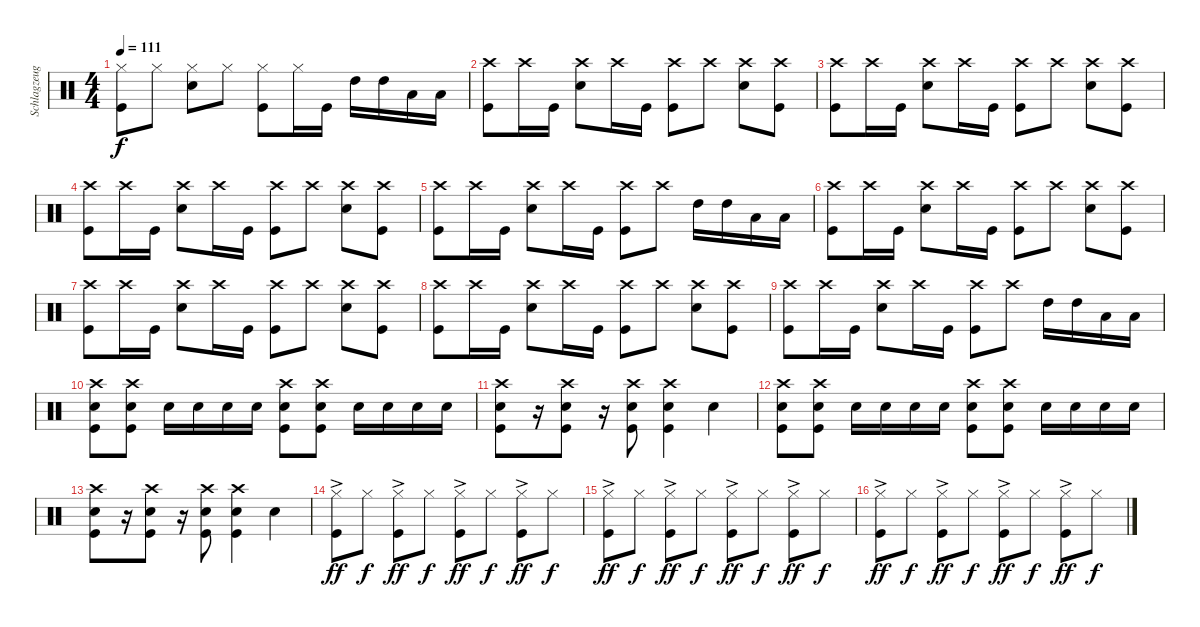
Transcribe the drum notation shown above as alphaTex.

\track ("Schlagzeug" "Schlagzeug") {solo instrument percussion}
\staff {score}
\articulation defaults
\ts (4 4)
\tempo 111
\clef neutral
\ks c
("Kick (hit)" "Hi-Hat (closed)").8{dy f} "Hi-Hat (closed)".8 ("Hi-Hat (closed)" "Snare (hit) 2").8 "Hi-Hat (closed)".8 ("Hi-Hat (closed)" "Kick (hit)").8 "Hi-Hat (closed)".16 "Kick (hit)".16 "High Tom (hit)".16 "High Tom (hit)".16 "Low Tom (hit)".16 "Low Floor Tom (hit)".16 |
("Crash high (hit)" "Kick (hit)").8 "Crash high (hit)".16 "Kick (hit)".16 ("Crash high (hit)" "Snare (hit) 2").8 "Crash high (hit)".16 "Kick (hit)".16 ("Crash high (hit)" "Kick (hit)").8 "Crash high (hit)".8 ("Snare (hit) 2" "Crash high (hit)").8 ("Crash high (hit)" "Kick (hit)").8 |
("Crash high (hit)" "Kick (hit)").8 "Crash high (hit)".16 "Kick (hit)".16 ("Crash high (hit)" "Snare (hit) 2").8 "Crash high (hit)".16 "Kick (hit)".16 ("Crash high (hit)" "Kick (hit)").8 "Crash high (hit)".8 ("Snare (hit) 2" "Crash high (hit)").8 ("Crash high (hit)" "Kick (hit)").8 |
("Crash high (hit)" "Kick (hit)").8 "Crash high (hit)".16 "Kick (hit)".16 ("Crash high (hit)" "Snare (hit) 2").8 "Crash high (hit)".16 "Kick (hit)".16 ("Crash high (hit)" "Kick (hit)").8 "Crash high (hit)".8 ("Snare (hit) 2" "Crash high (hit)").8 ("Crash high (hit)" "Kick (hit)").8 |
("Crash high (hit)" "Kick (hit)").8 "Crash high (hit)".16 "Kick (hit)".16 ("Crash high (hit)" "Snare (hit) 2").8 "Crash high (hit)".16 "Kick (hit)".16 ("Crash high (hit)" "Kick (hit)").8 "Crash high (hit)".8 "High Tom (hit)".16 "High Tom (hit)".16 "Low Tom (hit)".16 "Low Tom (hit)".16 |
("Crash high (hit)" "Kick (hit)").8 "Crash high (hit)".16 "Kick (hit)".16 ("Crash high (hit)" "Snare (hit) 2").8 "Crash high (hit)".16 "Kick (hit)".16 ("Crash high (hit)" "Kick (hit)").8 "Crash high (hit)".8 ("Snare (hit) 2" "Crash high (hit)").8 ("Crash high (hit)" "Kick (hit)").8 |
("Crash high (hit)" "Kick (hit)").8 "Crash high (hit)".16 "Kick (hit)".16 ("Crash high (hit)" "Snare (hit) 2").8 "Crash high (hit)".16 "Kick (hit)".16 ("Crash high (hit)" "Kick (hit)").8 "Crash high (hit)".8 ("Snare (hit) 2" "Crash high (hit)").8 ("Crash high (hit)" "Kick (hit)").8 |
("Crash high (hit)" "Kick (hit)").8 "Crash high (hit)".16 "Kick (hit)".16 ("Crash high (hit)" "Snare (hit) 2").8 "Crash high (hit)".16 "Kick (hit)".16 ("Crash high (hit)" "Kick (hit)").8 "Crash high (hit)".8 ("Snare (hit) 2" "Crash high (hit)").8 ("Crash high (hit)" "Kick (hit)").8 |
("Crash high (hit)" "Kick (hit)").8 "Crash high (hit)".16 "Kick (hit)".16 ("Crash high (hit)" "Snare (hit) 2").8 "Crash high (hit)".16 "Kick (hit)".16 ("Crash high (hit)" "Kick (hit)").8 "Crash high (hit)".8 "High Tom (hit)".16 "High Tom (hit)".16 "Low Tom (hit)".16 "Low Tom (hit)".16 |
("Snare (hit) 2" "Crash high (hit)" "Kick (hit)").8 ("Snare (hit) 2" "Crash high (hit)" "Kick (hit)").8 "Snare (hit) 2".16 "Snare (hit) 2".16 "Snare (hit) 2".16 "Snare (hit) 2".16 ("Snare (hit) 2" "Crash high (hit)" "Kick (hit)").8 ("Snare (hit) 2" "Crash high (hit)" "Kick (hit)").8 "Snare (hit) 2".16 "Snare (hit) 2".16 "Snare (hit) 2".16 "Snare (hit) 2".16 |
("Crash high (hit)" "Snare (hit) 2" "Kick (hit)").8 r.16 ("Crash high (hit)" "Snare (hit) 2" "Kick (hit)").8 r.16 ("Crash high (hit)" "Snare (hit) 2" "Kick (hit)").8 ("Crash high (hit)" "Snare (hit) 2" "Kick (hit)").4 "Snare (hit) 2".4 |
("Snare (hit) 2" "Crash high (hit)" "Kick (hit)").8 ("Snare (hit) 2" "Crash high (hit)" "Kick (hit)").8 "Snare (hit) 2".16 "Snare (hit) 2".16 "Snare (hit) 2".16 "Snare (hit) 2".16 ("Snare (hit) 2" "Crash high (hit)" "Kick (hit)").8 ("Snare (hit) 2" "Crash high (hit)" "Kick (hit)").8 "Snare (hit) 2".16 "Snare (hit) 2".16 "Snare (hit) 2".16 "Snare (hit) 2".16 |
("Crash high (hit)" "Snare (hit) 2" "Kick (hit)").8 r.16 ("Crash high (hit)" "Snare (hit) 2" "Kick (hit)").8 r.16 ("Crash high (hit)" "Snare (hit) 2" "Kick (hit)").8 ("Crash high (hit)" "Snare (hit) 2" "Kick (hit)").4 "Snare (hit) 2".4 |
("Hi-Hat (closed)"{ac} "Kick (hit)").8{dy ff} "Hi-Hat (closed)".8{dy f} ("Hi-Hat (closed)"{ac} "Kick (hit)").8{dy ff} "Hi-Hat (closed)".8{dy f} ("Hi-Hat (closed)"{ac} "Kick (hit)").8{dy ff} "Hi-Hat (closed)".8{dy f} ("Hi-Hat (closed)"{ac} "Kick (hit)").8{dy ff} "Hi-Hat (closed)".8{dy f} |
("Hi-Hat (closed)"{ac} "Kick (hit)").8{dy ff} "Hi-Hat (closed)".8{dy f} ("Hi-Hat (closed)"{ac} "Kick (hit)").8{dy ff} "Hi-Hat (closed)".8{dy f} ("Hi-Hat (closed)"{ac} "Kick (hit)").8{dy ff} "Hi-Hat (closed)".8{dy f} ("Hi-Hat (closed)"{ac} "Kick (hit)").8{dy ff} "Hi-Hat (closed)".8{dy f} |
("Hi-Hat (closed)"{ac} "Kick (hit)").8{dy ff} "Hi-Hat (closed)".8{dy f} ("Hi-Hat (closed)"{ac} "Kick (hit)").8{dy ff} "Hi-Hat (closed)".8{dy f} ("Hi-Hat (closed)"{ac} "Kick (hit)").8{dy ff} "Hi-Hat (closed)".8{dy f} ("Hi-Hat (closed)"{ac} "Kick (hit)").8{dy ff} "Hi-Hat (closed)".8{dy f}
